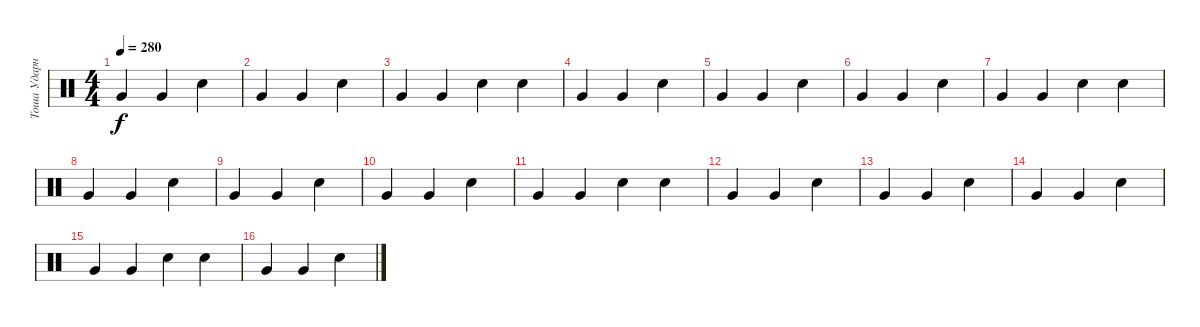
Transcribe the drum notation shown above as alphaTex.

\track ("Тоша Ударные" "Тоша Ударн") {instrument percussion}
\staff {score}
\articulation defaults
\ts (4 4)
\tempo 280
\clef neutral
\ks c "Very Low Tom (hit)".4{dy f} "Very Low Tom (hit)".4 "Electric Snare (hit)".4
|
"Very Low Tom (hit)".4 "Very Low Tom (hit)".4 "Electric Snare (hit)".4 |
"Very Low Tom (hit)".4 "Very Low Tom (hit)".4 "Electric Snare (hit)".4 "Electric Snare (hit)".4 |
"Very Low Tom (hit)".4 "Very Low Tom (hit)".4 "Electric Snare (hit)".4 |
"Very Low Tom (hit)".4 "Very Low Tom (hit)".4 "Electric Snare (hit)".4 |
"Very Low Tom (hit)".4 "Very Low Tom (hit)".4 "Electric Snare (hit)".4 |
"Very Low Tom (hit)".4 "Very Low Tom (hit)".4 "Electric Snare (hit)".4 "Electric Snare (hit)".4 |
"Very Low Tom (hit)".4 "Very Low Tom (hit)".4 "Electric Snare (hit)".4 |
"Very Low Tom (hit)".4 "Very Low Tom (hit)".4 "Electric Snare (hit)".4 |
"Very Low Tom (hit)".4 "Very Low Tom (hit)".4 "Electric Snare (hit)".4 |
"Very Low Tom (hit)".4 "Very Low Tom (hit)".4 "Electric Snare (hit)".4 "Electric Snare (hit)".4 |
"Very Low Tom (hit)".4 "Very Low Tom (hit)".4 "Electric Snare (hit)".4 |
"Very Low Tom (hit)".4 "Very Low Tom (hit)".4 "Electric Snare (hit)".4 |
"Very Low Tom (hit)".4 "Very Low Tom (hit)".4 "Electric Snare (hit)".4 |
"Very Low Tom (hit)".4 "Very Low Tom (hit)".4 "Electric Snare (hit)".4 "Electric Snare (hit)".4 |
"Very Low Tom (hit)".4 "Very Low Tom (hit)".4 "Electric Snare (hit)".4
